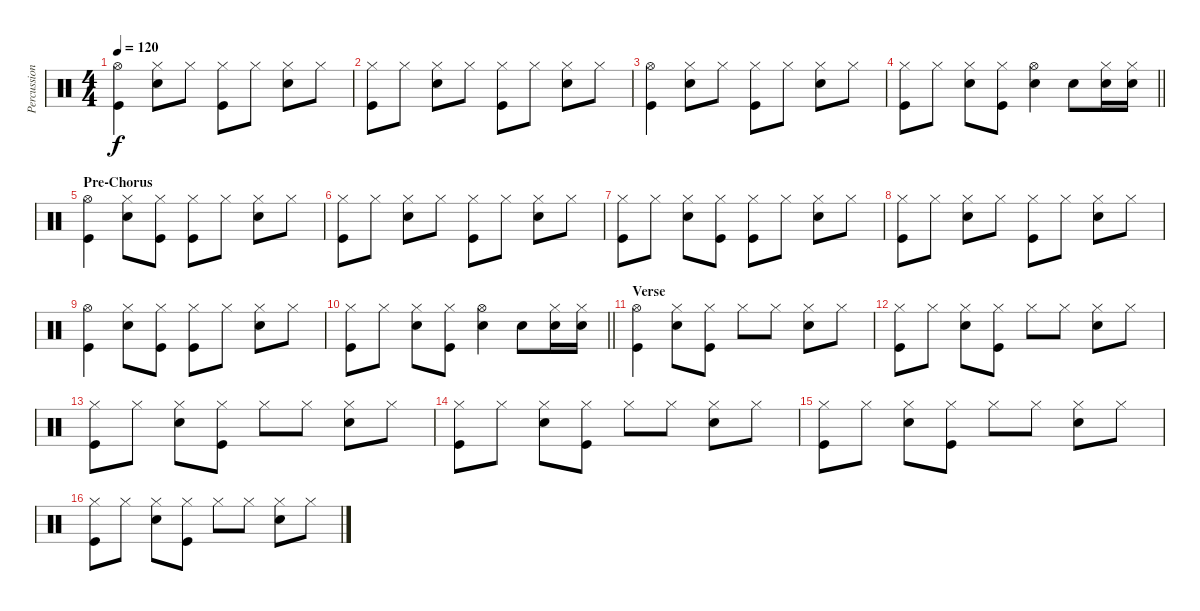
\track ("Percussion" "Percussion") {instrument percussion}
\staff {score}
\articulation defaults
\ts (4 4)
\tempo 120
\clef neutral
\ks c
("Hi-Hat (open)" "Kick (hit)").4{dy f} ("Hi-Hat (closed)" "Snare (hit) 2").8 "Hi-Hat (closed)".8 ("Hi-Hat (closed)" "Kick (hit)").8 "Hi-Hat (closed)".8 ("Hi-Hat (closed)" "Snare (hit) 2").8 "Hi-Hat (closed)".8 |
("Hi-Hat (closed)" "Kick (hit)").8 "Hi-Hat (closed)".8 ("Hi-Hat (closed)" "Snare (hit) 2").8 "Hi-Hat (closed)".8 ("Hi-Hat (closed)" "Kick (hit)").8 "Hi-Hat (closed)".8 ("Hi-Hat (closed)" "Snare (hit) 2").8 "Hi-Hat (closed)".8 |
("Hi-Hat (open)" "Kick (hit)").4 ("Hi-Hat (closed)" "Snare (hit) 2").8 "Hi-Hat (closed)".8 ("Hi-Hat (closed)" "Kick (hit)").8 "Hi-Hat (closed)".8 ("Hi-Hat (closed)" "Snare (hit) 2").8 "Hi-Hat (closed)".8 |
\barLineRight lightlight
("Hi-Hat (closed)" "Kick (hit)").8 "Hi-Hat (closed)".8 ("Hi-Hat (closed)" "Snare (hit) 2").8 ("Hi-Hat (closed)" "Kick (hit)").8 ("Hi-Hat (open)" "Snare (hit) 2").4 "Snare (hit) 2".8 ("Hi-Hat (closed)" "Snare (hit) 2").16 ("Hi-Hat (closed)" "Snare (hit) 2").16 |
\section ("" "Pre-Chorus")
("Hi-Hat (open)" "Kick (hit)").4 ("Hi-Hat (closed)" "Snare (hit) 2").8 ("Hi-Hat (closed)" "Kick (hit)").8 ("Hi-Hat (closed)" "Kick (hit)").8 "Hi-Hat (closed)".8 ("Hi-Hat (closed)" "Snare (hit) 2").8 "Hi-Hat (closed)".8 |
("Hi-Hat (closed)" "Kick (hit)").8 "Hi-Hat (closed)".8 ("Hi-Hat (closed)" "Snare (hit) 2").8 "Hi-Hat (closed)".8 ("Hi-Hat (closed)" "Kick (hit)").8 "Hi-Hat (closed)".8 ("Hi-Hat (closed)" "Snare (hit) 2").8 "Hi-Hat (closed)".8 |
("Hi-Hat (closed)" "Kick (hit)").8 "Hi-Hat (closed)".8 ("Hi-Hat (closed)" "Snare (hit) 2").8 ("Hi-Hat (closed)" "Kick (hit)").8 ("Hi-Hat (closed)" "Kick (hit)").8 "Hi-Hat (closed)".8 ("Hi-Hat (closed)" "Snare (hit) 2").8 "Hi-Hat (closed)".8 |
("Hi-Hat (closed)" "Kick (hit)").8 "Hi-Hat (closed)".8 ("Hi-Hat (closed)" "Snare (hit) 2").8 "Hi-Hat (closed)".8 ("Hi-Hat (closed)" "Kick (hit)").8 "Hi-Hat (closed)".8 ("Hi-Hat (closed)" "Snare (hit) 2").8 "Hi-Hat (closed)".8 |
("Hi-Hat (open)" "Kick (hit)").4 ("Hi-Hat (closed)" "Snare (hit) 2").8 ("Hi-Hat (closed)" "Kick (hit)").8 ("Hi-Hat (closed)" "Kick (hit)").8 "Hi-Hat (closed)".8 ("Hi-Hat (closed)" "Snare (hit) 2").8 "Hi-Hat (closed)".8 |
\barLineRight lightlight
("Hi-Hat (closed)" "Kick (hit)").8 "Hi-Hat (closed)".8 ("Hi-Hat (closed)" "Snare (hit) 2").8 ("Hi-Hat (closed)" "Kick (hit)").8 ("Hi-Hat (open)" "Snare (hit) 2").4 "Snare (hit) 2".8 ("Hi-Hat (closed)" "Snare (hit) 2").16 ("Hi-Hat (closed)" "Snare (hit) 2").16 |
\section ("" "Verse")
("Hi-Hat (open)" "Kick (hit)").4 ("Hi-Hat (closed)" "Snare (hit) 2").8 ("Hi-Hat (closed)" "Kick (hit)").8 "Hi-Hat (closed)".8 "Hi-Hat (closed)".8 ("Hi-Hat (closed)" "Snare (hit) 2").8 "Hi-Hat (closed)".8 |
("Hi-Hat (closed)" "Kick (hit)").8 "Hi-Hat (closed)".8 ("Hi-Hat (closed)" "Snare (hit) 2").8 ("Hi-Hat (closed)" "Kick (hit)").8 "Hi-Hat (closed)".8 "Hi-Hat (closed)".8 ("Hi-Hat (closed)" "Snare (hit) 2").8 "Hi-Hat (closed)".8 |
("Hi-Hat (closed)" "Kick (hit)").8 "Hi-Hat (closed)".8 ("Hi-Hat (closed)" "Snare (hit) 2").8 ("Hi-Hat (closed)" "Kick (hit)").8 "Hi-Hat (closed)".8 "Hi-Hat (closed)".8 ("Hi-Hat (closed)" "Snare (hit) 2").8 "Hi-Hat (closed)".8 |
("Hi-Hat (closed)" "Kick (hit)").8 "Hi-Hat (closed)".8 ("Hi-Hat (closed)" "Snare (hit) 2").8 ("Hi-Hat (closed)" "Kick (hit)").8 "Hi-Hat (closed)".8 "Hi-Hat (closed)".8 ("Hi-Hat (closed)" "Snare (hit) 2").8 "Hi-Hat (closed)".8 |
("Hi-Hat (closed)" "Kick (hit)").8 "Hi-Hat (closed)".8 ("Hi-Hat (closed)" "Snare (hit) 2").8 ("Hi-Hat (closed)" "Kick (hit)").8 "Hi-Hat (closed)".8 "Hi-Hat (closed)".8 ("Hi-Hat (closed)" "Snare (hit) 2").8 "Hi-Hat (closed)".8 |
("Hi-Hat (closed)" "Kick (hit)").8 "Hi-Hat (closed)".8 ("Hi-Hat (closed)" "Snare (hit) 2").8 ("Hi-Hat (closed)" "Kick (hit)").8 "Hi-Hat (closed)".8 "Hi-Hat (closed)".8 ("Hi-Hat (closed)" "Snare (hit) 2").8 "Hi-Hat (closed)".8
